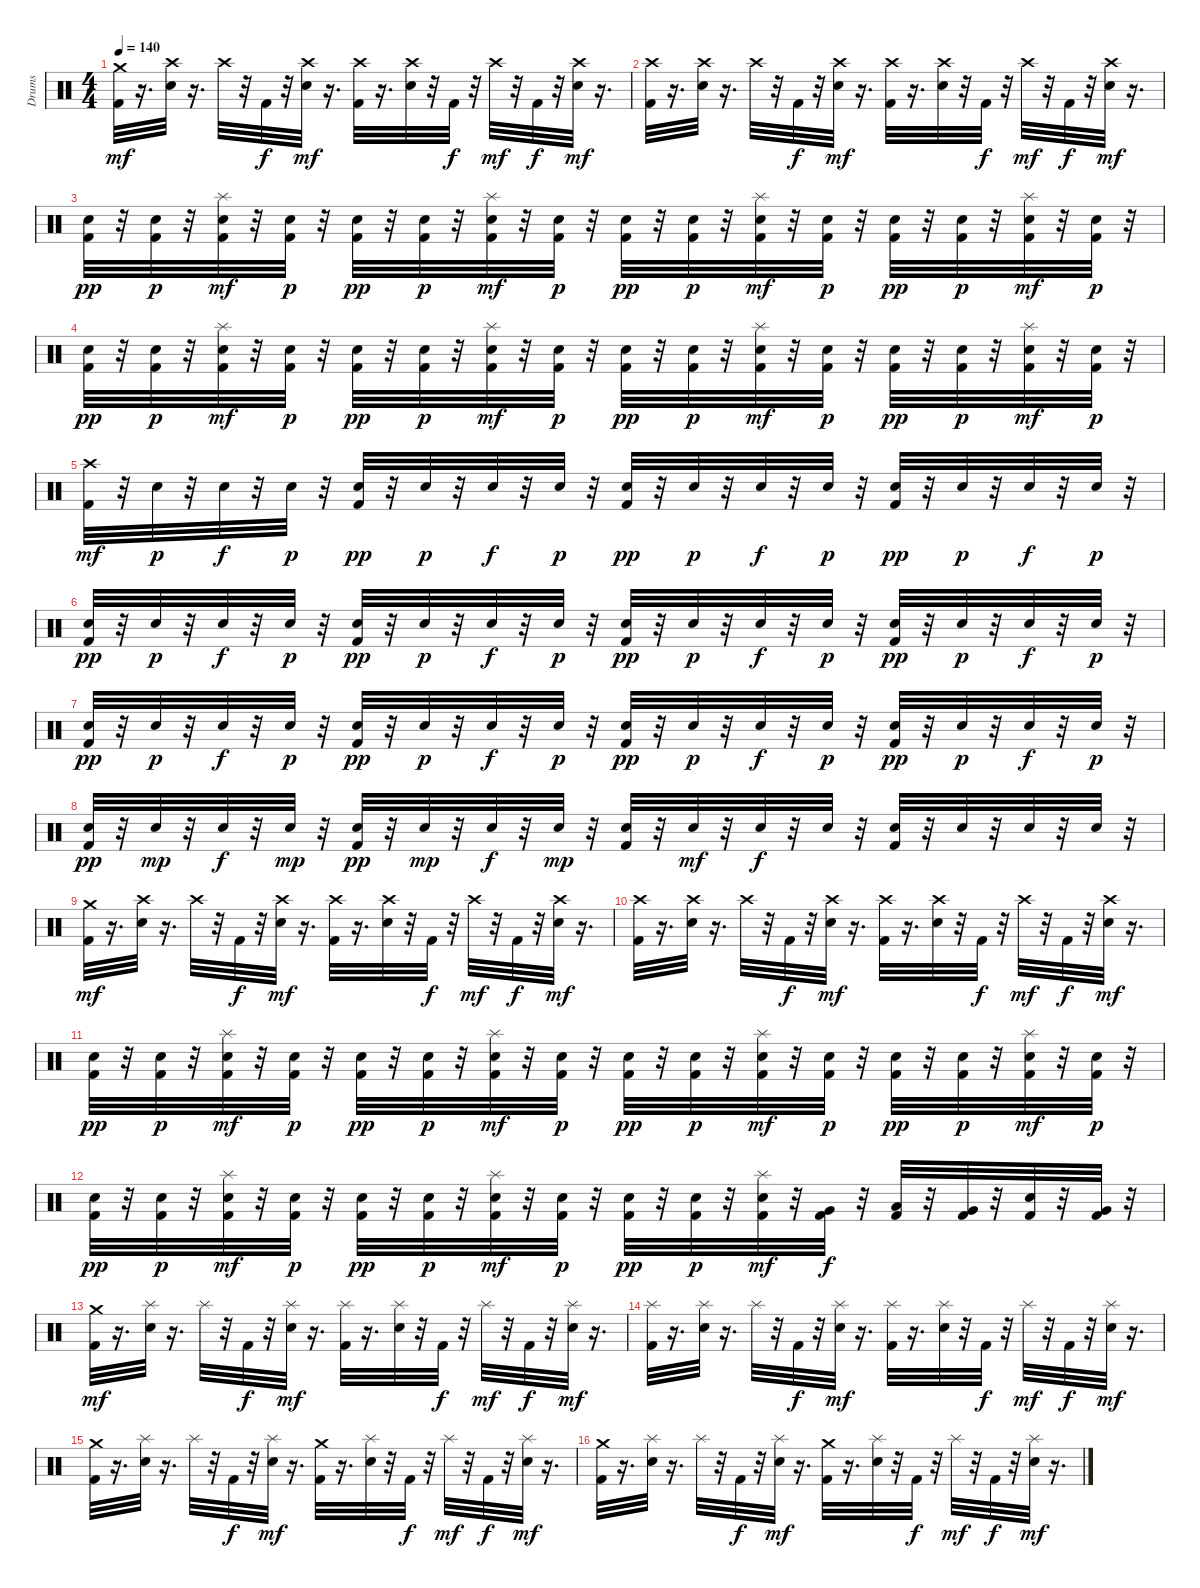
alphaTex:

\track ("Drums" "Drums") {instrument percussion}
\staff {score}
\articulation defaults
\ts (4 4)
\tempo 140
\clef neutral
\ks c
("Kick (hit) 2" "Crash medium (hit)").32{dy mf} r.16{d} ("Electric Snare (hit)" "Crash high (hit)").32 r.16{d} "Crash high (hit)".32 r.32 "Kick (hit) 2".32{dy f} r.32 ("Electric Snare (hit)" "Crash high (hit)").32{dy mf} r.16{d} ("Kick (hit) 2" "Crash high (hit)").32 r.16{d} ("Electric Snare (hit)" "Crash high (hit)").32 r.32 "Kick (hit) 2".32{dy f} r.32 "Crash high (hit)".32{dy mf} r.32 "Kick (hit) 2".32{dy f} r.32 ("Electric Snare (hit)" "Crash high (hit)").32{dy mf} r.16{d} |
("Kick (hit) 2" "Crash high (hit)").32 r.16{d} ("Electric Snare (hit)" "Crash high (hit)").32 r.16{d} "Crash high (hit)".32 r.32 "Kick (hit) 2".32{dy f} r.32 ("Electric Snare (hit)" "Crash high (hit)").32{dy mf} r.16{d} ("Kick (hit) 2" "Crash high (hit)").32 r.16{d} ("Electric Snare (hit)" "Crash high (hit)").32 r.32 "Kick (hit) 2".32{dy f} r.32 "Crash high (hit)".32{dy mf} r.32 "Kick (hit) 2".32{dy f} r.32 ("Electric Snare (hit)" "Crash high (hit)").32{dy mf} r.16{d} |
("Kick (hit) 2" "Electric Snare (hit)").32{dy pp} r.32 ("Kick (hit) 2" "Electric Snare (hit)").32{dy p} r.32 ("Kick (hit) 2" "Electric Snare (hit)" "Splash (hit)").32{dy mf} r.32 ("Kick (hit) 2" "Electric Snare (hit)").32{dy p} r.32 ("Kick (hit) 2" "Electric Snare (hit)").32{dy pp} r.32 ("Kick (hit) 2" "Electric Snare (hit)").32{dy p} r.32 ("Kick (hit) 2" "Electric Snare (hit)" "Splash (hit)").32{dy mf} r.32 ("Kick (hit) 2" "Electric Snare (hit)").32{dy p} r.32 ("Kick (hit) 2" "Electric Snare (hit)").32{dy pp} r.32 ("Kick (hit) 2" "Electric Snare (hit)").32{dy p} r.32 ("Kick (hit) 2" "Electric Snare (hit)" "Splash (hit)").32{dy mf} r.32 ("Kick (hit) 2" "Electric Snare (hit)").32{dy p} r.32 ("Kick (hit) 2" "Electric Snare (hit)").32{dy pp} r.32 ("Kick (hit) 2" "Electric Snare (hit)").32{dy p} r.32 ("Kick (hit) 2" "Electric Snare (hit)" "Splash (hit)").32{dy mf} r.32 ("Kick (hit) 2" "Electric Snare (hit)").32{dy p} r.32 |
("Kick (hit) 2" "Electric Snare (hit)").32{dy pp} r.32 ("Kick (hit) 2" "Electric Snare (hit)").32{dy p} r.32 ("Kick (hit) 2" "Electric Snare (hit)" "Splash (hit)").32{dy mf} r.32 ("Kick (hit) 2" "Electric Snare (hit)").32{dy p} r.32 ("Kick (hit) 2" "Electric Snare (hit)").32{dy pp} r.32 ("Kick (hit) 2" "Electric Snare (hit)").32{dy p} r.32 ("Kick (hit) 2" "Electric Snare (hit)" "Splash (hit)").32{dy mf} r.32 ("Kick (hit) 2" "Electric Snare (hit)").32{dy p} r.32 ("Kick (hit) 2" "Electric Snare (hit)").32{dy pp} r.32 ("Kick (hit) 2" "Electric Snare (hit)").32{dy p} r.32 ("Kick (hit) 2" "Electric Snare (hit)" "Splash (hit)").32{dy mf} r.32 ("Kick (hit) 2" "Electric Snare (hit)").32{dy p} r.32 ("Kick (hit) 2" "Electric Snare (hit)").32{dy pp} r.32 ("Kick (hit) 2" "Electric Snare (hit)").32{dy p} r.32 ("Kick (hit) 2" "Electric Snare (hit)" "Splash (hit)").32{dy mf} r.32 ("Kick (hit) 2" "Electric Snare (hit)").32{dy p} r.32 |
("Kick (hit) 2" "Crash high (hit)").32{dy mf} r.32 "Electric Snare (hit)".32{dy p} r.32 "Electric Snare (hit)".32{dy f} r.32 "Electric Snare (hit)".32{dy p} r.32 ("Kick (hit) 2" "Electric Snare (hit)").32{dy pp} r.32 "Electric Snare (hit)".32{dy p} r.32 "Electric Snare (hit)".32{dy f} r.32 "Electric Snare (hit)".32{dy p} r.32 ("Kick (hit) 2" "Electric Snare (hit)").32{dy pp} r.32 "Electric Snare (hit)".32{dy p} r.32 "Electric Snare (hit)".32{dy f} r.32 "Electric Snare (hit)".32{dy p} r.32 ("Kick (hit) 2" "Electric Snare (hit)").32{dy pp} r.32 "Electric Snare (hit)".32{dy p} r.32 "Electric Snare (hit)".32{dy f} r.32 "Electric Snare (hit)".32{dy p} r.32 |
("Kick (hit) 2" "Electric Snare (hit)").32{dy pp} r.32 "Electric Snare (hit)".32{dy p} r.32 "Electric Snare (hit)".32{dy f} r.32 "Electric Snare (hit)".32{dy p} r.32 ("Kick (hit) 2" "Electric Snare (hit)").32{dy pp} r.32 "Electric Snare (hit)".32{dy p} r.32 "Electric Snare (hit)".32{dy f} r.32 "Electric Snare (hit)".32{dy p} r.32 ("Kick (hit) 2" "Electric Snare (hit)").32{dy pp} r.32 "Electric Snare (hit)".32{dy p} r.32 "Electric Snare (hit)".32{dy f} r.32 "Electric Snare (hit)".32{dy p} r.32 ("Kick (hit) 2" "Electric Snare (hit)").32{dy pp} r.32 "Electric Snare (hit)".32{dy p} r.32 "Electric Snare (hit)".32{dy f} r.32 "Electric Snare (hit)".32{dy p} r.32 |
("Kick (hit) 2" "Electric Snare (hit)").32{dy pp} r.32 "Electric Snare (hit)".32{dy p} r.32 "Electric Snare (hit)".32{dy f} r.32 "Electric Snare (hit)".32{dy p} r.32 ("Kick (hit) 2" "Electric Snare (hit)").32{dy pp} r.32 "Electric Snare (hit)".32{dy p} r.32 "Electric Snare (hit)".32{dy f} r.32 "Electric Snare (hit)".32{dy p} r.32 ("Kick (hit) 2" "Electric Snare (hit)").32{dy pp} r.32 "Electric Snare (hit)".32{dy p} r.32 "Electric Snare (hit)".32{dy f} r.32 "Electric Snare (hit)".32{dy p} r.32 ("Kick (hit) 2" "Electric Snare (hit)").32{dy pp} r.32 "Electric Snare (hit)".32{dy p} r.32 "Electric Snare (hit)".32{dy f} r.32 "Electric Snare (hit)".32{dy p} r.32 |
("Kick (hit) 2" "Electric Snare (hit)").32{dy pp} r.32 "Electric Snare (hit)".32{dy mp} r.32 "Electric Snare (hit)".32{dy f} r.32 "Electric Snare (hit)".32{dy mp} r.32 ("Kick (hit) 2" "Electric Snare (hit)").32{dy pp} r.32 "Electric Snare (hit)".32{dy mp} r.32 "Electric Snare (hit)".32{dy f} r.32 "Electric Snare (hit)".32{dy mp} r.32 ("Kick (hit) 2" "Electric Snare (hit)").32 r.32 "Electric Snare (hit)".32{dy mf} r.32 "Electric Snare (hit)".32{dy f} r.32 "Electric Snare (hit)".32 r.32 ("Kick (hit) 2" "Electric Snare (hit)").32 r.32 "Electric Snare (hit)".32 r.32 "Electric Snare (hit)".32 r.32 "Electric Snare (hit)".32 r.32 |
("Kick (hit) 2" "Crash medium (hit)").32{dy mf} r.16{d} ("Electric Snare (hit)" "Crash high (hit)").32 r.16{d} "Crash high (hit)".32 r.32 "Kick (hit) 2".32{dy f} r.32 ("Electric Snare (hit)" "Crash high (hit)").32{dy mf} r.16{d} ("Kick (hit) 2" "Crash high (hit)").32 r.16{d} ("Electric Snare (hit)" "Crash high (hit)").32 r.32 "Kick (hit) 2".32{dy f} r.32 "Crash high (hit)".32{dy mf} r.32 "Kick (hit) 2".32{dy f} r.32 ("Electric Snare (hit)" "Crash high (hit)").32{dy mf} r.16{d} |
("Kick (hit) 2" "Crash high (hit)").32 r.16{d} ("Electric Snare (hit)" "Crash high (hit)").32 r.16{d} "Crash high (hit)".32 r.32 "Kick (hit) 2".32{dy f} r.32 ("Electric Snare (hit)" "Crash high (hit)").32{dy mf} r.16{d} ("Kick (hit) 2" "Crash high (hit)").32 r.16{d} ("Electric Snare (hit)" "Crash high (hit)").32 r.32 "Kick (hit) 2".32{dy f} r.32 "Crash high (hit)".32{dy mf} r.32 "Kick (hit) 2".32{dy f} r.32 ("Electric Snare (hit)" "Crash high (hit)").32{dy mf} r.16{d} |
("Kick (hit) 2" "Electric Snare (hit)").32{dy pp} r.32 ("Kick (hit) 2" "Electric Snare (hit)").32{dy p} r.32 ("Kick (hit) 2" "Electric Snare (hit)" "Splash (hit)").32{dy mf} r.32 ("Kick (hit) 2" "Electric Snare (hit)").32{dy p} r.32 ("Kick (hit) 2" "Electric Snare (hit)").32{dy pp} r.32 ("Kick (hit) 2" "Electric Snare (hit)").32{dy p} r.32 ("Kick (hit) 2" "Electric Snare (hit)" "Splash (hit)").32{dy mf} r.32 ("Kick (hit) 2" "Electric Snare (hit)").32{dy p} r.32 ("Kick (hit) 2" "Electric Snare (hit)").32{dy pp} r.32 ("Kick (hit) 2" "Electric Snare (hit)").32{dy p} r.32 ("Kick (hit) 2" "Electric Snare (hit)" "Splash (hit)").32{dy mf} r.32 ("Kick (hit) 2" "Electric Snare (hit)").32{dy p} r.32 ("Kick (hit) 2" "Electric Snare (hit)").32{dy pp} r.32 ("Kick (hit) 2" "Electric Snare (hit)").32{dy p} r.32 ("Kick (hit) 2" "Electric Snare (hit)" "Splash (hit)").32{dy mf} r.32 ("Kick (hit) 2" "Electric Snare (hit)").32{dy p} r.32 |
("Kick (hit) 2" "Electric Snare (hit)").32{dy pp} r.32 ("Kick (hit) 2" "Electric Snare (hit)").32{dy p} r.32 ("Kick (hit) 2" "Electric Snare (hit)" "Splash (hit)").32{dy mf} r.32 ("Kick (hit) 2" "Electric Snare (hit)").32{dy p} r.32 ("Kick (hit) 2" "Electric Snare (hit)").32{dy pp} r.32 ("Kick (hit) 2" "Electric Snare (hit)").32{dy p} r.32 ("Kick (hit) 2" "Electric Snare (hit)" "Splash (hit)").32{dy mf} r.32 ("Kick (hit) 2" "Electric Snare (hit)").32{dy p} r.32 ("Kick (hit) 2" "Electric Snare (hit)").32{dy pp} r.32 ("Kick (hit) 2" "Electric Snare (hit)").32{dy p} r.32 ("Kick (hit) 2" "Electric Snare (hit)" "Splash (hit)").32{dy mf} r.32 ("Kick (hit) 2" "Very Low Tom (hit)").32{dy f} r.32 ("Kick (hit) 2" "Low Floor Tom (hit)").32 r.32 ("Kick (hit) 2" "Very Low Tom (hit)").32 r.32 ("Kick (hit) 2" "Electric Snare (hit)").32 r.32 ("Kick (hit) 2" "Very Low Tom (hit)").32 r.32 |
("Kick (hit) 2" "Crash medium (hit)").32{dy mf} r.16{d} ("Electric Snare (hit)" "Splash (hit)").32 r.16{d} "Splash (hit)".32 r.32 "Kick (hit) 2".32{dy f} r.32 ("Electric Snare (hit)" "Splash (hit)").32{dy mf} r.16{d} ("Kick (hit) 2" "Splash (hit)").32 r.16{d} ("Electric Snare (hit)" "Splash (hit)").32 r.32 "Kick (hit) 2".32{dy f} r.32 "Splash (hit)".32{dy mf} r.32 "Kick (hit) 2".32{dy f} r.32 ("Electric Snare (hit)" "Splash (hit)").32{dy mf} r.16{d} |
("Kick (hit) 2" "Splash (hit)").32 r.16{d} ("Electric Snare (hit)" "Splash (hit)").32 r.16{d} "Splash (hit)".32 r.32 "Kick (hit) 2".32{dy f} r.32 ("Electric Snare (hit)" "Splash (hit)").32{dy mf} r.16{d} ("Kick (hit) 2" "Splash (hit)").32 r.16{d} ("Electric Snare (hit)" "Splash (hit)").32 r.32 "Kick (hit) 2".32{dy f} r.32 "Splash (hit)".32{dy mf} r.32 "Kick (hit) 2".32{dy f} r.32 ("Electric Snare (hit)" "Splash (hit)").32{dy mf} r.16{d} |
("Kick (hit) 2" "Crash medium (hit)").32 r.16{d} ("Electric Snare (hit)" "Splash (hit)").32 r.16{d} "Splash (hit)".32 r.32 "Kick (hit) 2".32{dy f} r.32 ("Electric Snare (hit)" "Splash (hit)").32{dy mf} r.16{d} ("Kick (hit) 2" "Crash medium (hit)").32 r.16{d} ("Electric Snare (hit)" "Splash (hit)").32 r.32 "Kick (hit) 2".32{dy f} r.32 "Splash (hit)".32{dy mf} r.32 "Kick (hit) 2".32{dy f} r.32 ("Electric Snare (hit)" "Splash (hit)").32{dy mf} r.16{d} |
("Kick (hit) 2" "Crash medium (hit)").32 r.16{d} ("Electric Snare (hit)" "Splash (hit)").32 r.16{d} "Splash (hit)".32 r.32 "Kick (hit) 2".32{dy f} r.32 ("Electric Snare (hit)" "Splash (hit)").32{dy mf} r.16{d} ("Kick (hit) 2" "Crash medium (hit)").32 r.16{d} ("Electric Snare (hit)" "Splash (hit)").32 r.32 "Kick (hit) 2".32{dy f} r.32 "Splash (hit)".32{dy mf} r.32 "Kick (hit) 2".32{dy f} r.32 ("Electric Snare (hit)" "Splash (hit)").32{dy mf} r.16{d}
